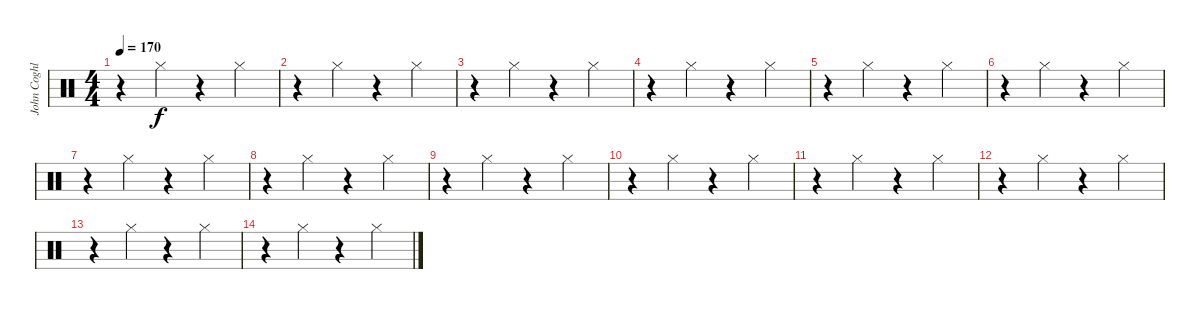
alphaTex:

\track ("John Coghlan" "John Coghl") {instrument percussion}
\staff {score}
\articulation defaults
\ts (4 4)
\tempo 170
\clef neutral
\ks c
r.4{dy f} "Hi-Hat (closed)".4 r.4 "Hi-Hat (closed)".4 |
r.4 "Hi-Hat (closed)".4 r.4 "Hi-Hat (closed)".4 |
r.4 "Hi-Hat (closed)".4 r.4 "Hi-Hat (closed)".4 |
r.4 "Hi-Hat (closed)".4 r.4 "Hi-Hat (closed)".4 |
r.4 "Hi-Hat (closed)".4 r.4 "Hi-Hat (closed)".4 |
r.4 "Hi-Hat (closed)".4 r.4 "Hi-Hat (closed)".4 |
r.4 "Hi-Hat (closed)".4 r.4 "Hi-Hat (closed)".4 |
r.4 "Hi-Hat (closed)".4 r.4 "Hi-Hat (closed)".4 |
r.4 "Hi-Hat (closed)".4 r.4 "Hi-Hat (closed)".4 |
r.4 "Hi-Hat (closed)".4 r.4 "Hi-Hat (closed)".4 |
r.4 "Hi-Hat (closed)".4 r.4 "Hi-Hat (closed)".4 |
r.4 "Hi-Hat (closed)".4 r.4 "Hi-Hat (closed)".4 |
r.4 "Hi-Hat (closed)".4 r.4 "Hi-Hat (closed)".4 |
r.4 "Hi-Hat (closed)".4 r.4 "Hi-Hat (closed)".4
